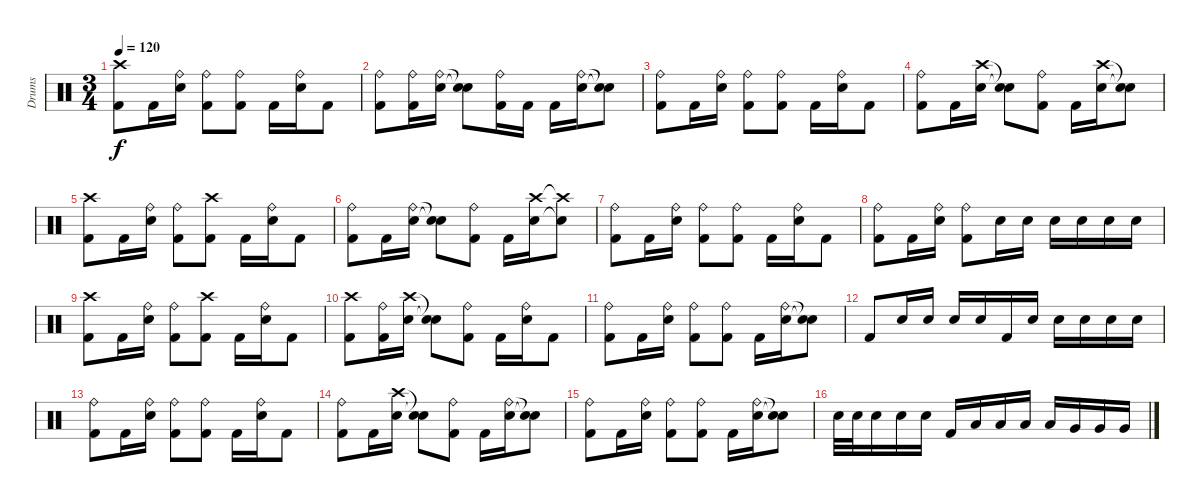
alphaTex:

\track ("Drums" "Drums") {instrument percussion}
\staff {score}
\articulation defaults
\ts (3 4)
\tempo 120
\clef neutral
\ks c
("Crash high (hit)" "Kick (hit) 2").8{dy f} "Kick (hit) 2".16 ("Ride (bell)" "Electric Snare (hit)").16 ("Ride (bell)" "Kick (hit) 2").8 ("Ride (bell)" "Kick (hit) 2").8 "Kick (hit) 2".16 ("Ride (bell)" "Electric Snare (hit)").16 "Kick (hit) 2".8 |
("Ride (bell)" "Kick (hit) 2").8 ("Ride (bell)" "Kick (hit) 2").16 ("Ride (bell)" "Electric Snare (hit)").16 ("Snare (hit)"{t} "Snare (hit)"{t}).8 ("Ride (bell)" "Kick (hit) 2").16 "Kick (hit) 2".16 "Kick (hit) 2".16 ("Ride (bell)" "Electric Snare (hit)").16 ("Snare (hit)"{t} "Snare (hit)"{t}).8 |
("Ride (bell)" "Kick (hit) 2").8 "Kick (hit) 2".16 ("Ride (bell)" "Electric Snare (hit)").16 ("Ride (bell)" "Kick (hit) 2").8 ("Ride (bell)" "Kick (hit) 2").8 "Kick (hit) 2".16 ("Ride (bell)" "Electric Snare (hit)").16 "Kick (hit) 2".8 |
("Ride (bell)" "Kick (hit) 2").8 "Kick (hit) 2".16 ("Crash high (hit)" "Electric Snare (hit)").16 ("Snare (hit)"{t} "Snare (hit)"{t}).8 ("Ride (bell)" "Kick (hit) 2").8 "Kick (hit) 2".16 ("Crash high (hit)" "Electric Snare (hit)").16 ("Snare (hit)"{t} "Snare (hit)"{t}).8 |
("Crash high (hit)" "Kick (hit) 2").8 "Kick (hit) 2".16 ("Ride (bell)" "Electric Snare (hit)").16 ("Ride (bell)" "Kick (hit) 2").8 ("Crash high (hit)" "Kick (hit) 2").8 "Kick (hit) 2".16 ("Ride (bell)" "Electric Snare (hit)").16 "Kick (hit) 2".8 |
("Ride (bell)" "Kick (hit) 2").8 "Kick (hit) 2".16 ("Ride (bell)" "Electric Snare (hit)").16 ("Snare (hit)"{t} "Snare (hit)"{t}).8 ("Ride (bell)" "Kick (hit) 2").8 "Kick (hit) 2".16 ("Crash high (hit)" "Electric Snare (hit)").16 ("Crash high (hit)"{t} "Snare (hit)"{t}).8 |
("Ride (bell)" "Kick (hit) 2").8 "Kick (hit) 2".16 ("Ride (bell)" "Electric Snare (hit)").16 ("Ride (bell)" "Kick (hit) 2").8 ("Ride (bell)" "Kick (hit) 2").8 "Kick (hit) 2".16 ("Ride (bell)" "Electric Snare (hit)").16 "Kick (hit) 2".8 |
("Ride (bell)" "Kick (hit) 2").8 "Kick (hit) 2".16 ("Ride (bell)" "Electric Snare (hit)").16 ("Ride (bell)" "Kick (hit) 2").8 "Electric Snare (hit)".16 "Electric Snare (hit)".16 "Electric Snare (hit)".16 "Electric Snare (hit)".16 "Electric Snare (hit)".16 "Electric Snare (hit)".16 |
("Crash high (hit)" "Kick (hit) 2").8 "Kick (hit) 2".16 ("Ride (bell)" "Electric Snare (hit)").16 ("Ride (bell)" "Kick (hit) 2").8 ("Crash high (hit)" "Kick (hit) 2").8 "Kick (hit) 2".16 ("Ride (bell)" "Electric Snare (hit)").16 "Kick (hit) 2".8 |
("Crash high (hit)" "Kick (hit) 2").8 ("Ride (bell)" "Kick (hit) 2").16 ("Crash high (hit)" "Electric Snare (hit)").16 ("Snare (hit)"{t} "Snare (hit)"{t}).8 ("Ride (bell)" "Kick (hit) 2").8 "Kick (hit) 2".16 ("Ride (bell)" "Electric Snare (hit)").16 "Kick (hit) 2".8 |
("Ride (bell)" "Kick (hit) 2").8 "Kick (hit) 2".16 ("Ride (bell)" "Electric Snare (hit)").16 ("Ride (bell)" "Kick (hit) 2").8 ("Ride (bell)" "Kick (hit) 2").8 "Kick (hit) 2".16 ("Ride (bell)" "Electric Snare (hit)").16 ("Snare (hit)"{t} "Snare (hit)"{t}).8 |
"Kick (hit) 2".8 "Electric Snare (hit)".16 "Electric Snare (hit)".16 "Electric Snare (hit)".16 "Electric Snare (hit)".16 "Kick (hit) 2".16 "Electric Snare (hit)".16 "Electric Snare (hit)".16 "Electric Snare (hit)".16 "Electric Snare (hit)".16 "Electric Snare (hit)".16 |
("Ride (bell)" "Kick (hit) 2").8 "Kick (hit) 2".16 ("Ride (bell)" "Electric Snare (hit)").16 ("Ride (bell)" "Kick (hit) 2").8 ("Ride (bell)" "Kick (hit) 2").8 "Kick (hit) 2".16 ("Ride (bell)" "Electric Snare (hit)").16 "Kick (hit) 2".8 |
("Ride (bell)" "Kick (hit) 2").8 "Kick (hit) 2".16 ("Crash high (hit)" "Electric Snare (hit)").16 ("Snare (hit)"{t} "Snare (hit)"{t}).8 ("Ride (bell)" "Kick (hit) 2").8 "Kick (hit) 2".16 ("Ride (bell)" "Electric Snare (hit)").16 ("Snare (hit)"{t} "Snare (hit)"{t}).8 |
("Ride (bell)" "Kick (hit) 2").8 "Kick (hit) 2".16 ("Ride (bell)" "Electric Snare (hit)").16 ("Ride (bell)" "Kick (hit) 2").8 ("Ride (bell)" "Kick (hit) 2").8 "Kick (hit) 2".16 ("Ride (bell)" "Electric Snare (hit)").16 ("Snare (hit)"{t} "Snare (hit)"{t}).8 |
"Electric Snare (hit)".32 "Electric Snare (hit)".32 "Electric Snare (hit)".16 "Electric Snare (hit)".16 "Electric Snare (hit)".16 "Kick (hit) 2".16 "Low Tom (hit)".16 "Low Tom (hit)".16 "Low Tom (hit)".16 "Low Tom (hit)".16 "Very Low Tom (hit)".16 "Very Low Tom (hit)".16 "Very Low Tom (hit)".16
